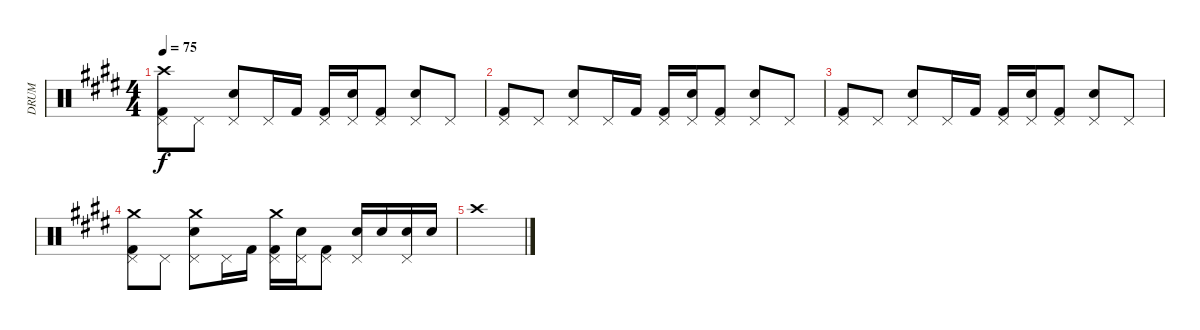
\track ("DRUM" "DRUM") {instrument percussion}
\staff {score}
\articulation defaults
\ts (4 4)
\tempo 75
\clef neutral
\ks e
("Crash high (hit)" "Pedal Hi-Hat (hit)" "Kick (hit) 2").8{dy f} "Pedal Hi-Hat (hit)".8 ("Pedal Hi-Hat (hit)" "Electric Snare (hit)").8 "Pedal Hi-Hat (hit)".16 "Kick (hit) 2".16 ("Pedal Hi-Hat (hit)" "Kick (hit) 2").16 ("Pedal Hi-Hat (hit)" "Electric Snare (hit)").16 ("Pedal Hi-Hat (hit)" "Kick (hit) 2").8 ("Pedal Hi-Hat (hit)" "Electric Snare (hit)").8 "Pedal Hi-Hat (hit)".8 |
("Pedal Hi-Hat (hit)" "Kick (hit) 2").8 "Pedal Hi-Hat (hit)".8 ("Pedal Hi-Hat (hit)" "Electric Snare (hit)").8 "Pedal Hi-Hat (hit)".16 "Kick (hit) 2".16 ("Pedal Hi-Hat (hit)" "Kick (hit) 2").16 ("Pedal Hi-Hat (hit)" "Electric Snare (hit)").16 ("Pedal Hi-Hat (hit)" "Kick (hit) 2").8 ("Pedal Hi-Hat (hit)" "Electric Snare (hit)").8 "Pedal Hi-Hat (hit)".8 |
("Pedal Hi-Hat (hit)" "Kick (hit) 2").8 "Pedal Hi-Hat (hit)".8 ("Pedal Hi-Hat (hit)" "Electric Snare (hit)").8 "Pedal Hi-Hat (hit)".16 "Kick (hit) 2".16 ("Pedal Hi-Hat (hit)" "Kick (hit) 2").16 ("Pedal Hi-Hat (hit)" "Electric Snare (hit)").16 ("Pedal Hi-Hat (hit)" "Kick (hit) 2").8 ("Pedal Hi-Hat (hit)" "Electric Snare (hit)").8 "Pedal Hi-Hat (hit)".8 |
("Crash medium (hit)" "Pedal Hi-Hat (hit)" "Kick (hit) 2").8 "Pedal Hi-Hat (hit)".8 ("Crash medium (hit)" "Pedal Hi-Hat (hit)" "Electric Snare (hit)").8 "Pedal Hi-Hat (hit)".16 "Kick (hit) 2".16 ("Crash medium (hit)" "Pedal Hi-Hat (hit)" "Kick (hit) 2").16 ("Pedal Hi-Hat (hit)" "Electric Snare (hit)").16 ("Pedal Hi-Hat (hit)" "Kick (hit) 2").8 ("Pedal Hi-Hat (hit)" "Electric Snare (hit)").16 "Electric Snare (hit)".16 ("Pedal Hi-Hat (hit)" "Electric Snare (hit)").16 "Electric Snare (hit)".16 |
"Crash high (hit)".1
